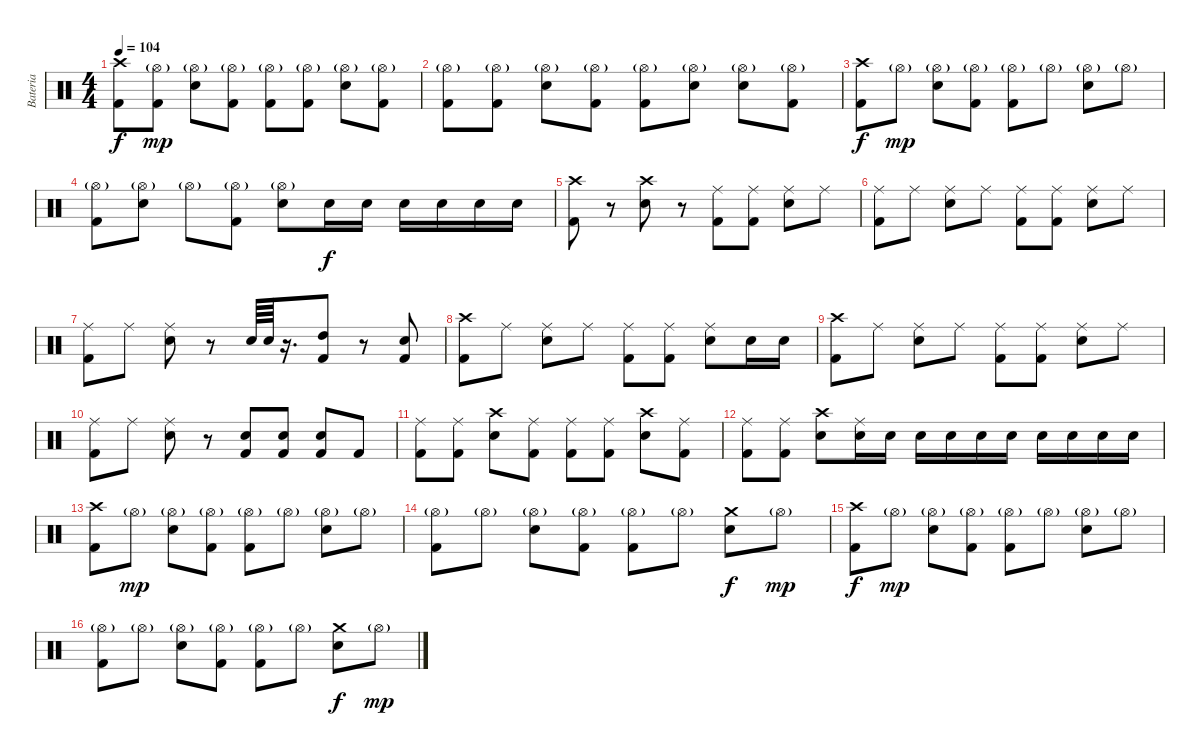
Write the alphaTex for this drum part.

\track ("Bateria" "Bateria") {instrument percussion}
\staff {score}
\articulation defaults
\ts (4 4)
\tempo 104
\clef neutral
\ks c
("Crash high (hit)" "Kick (hit) 2").8{dy f} ("Hi-Hat (open)"{g} "Kick (hit) 2").8{dy mp} ("Hi-Hat (open)"{g} "Snare (hit) 2").8 ("Hi-Hat (open)"{g} "Kick (hit) 2").8 ("Hi-Hat (open)"{g} "Kick (hit) 2").8 ("Hi-Hat (open)"{g} "Kick (hit) 2").8 ("Hi-Hat (open)"{g} "Snare (hit) 2").8 ("Hi-Hat (open)"{g} "Kick (hit) 2").8 |
("Hi-Hat (open)"{g} "Kick (hit) 2").8 ("Hi-Hat (open)"{g} "Kick (hit) 2").8 ("Hi-Hat (open)"{g} "Snare (hit) 2").8 ("Hi-Hat (open)"{g} "Kick (hit) 2").8 ("Hi-Hat (open)"{g} "Kick (hit) 2").8 ("Hi-Hat (open)"{g} "Snare (hit) 2").8 ("Hi-Hat (open)"{g} "Snare (hit) 2").8 ("Hi-Hat (open)"{g} "Kick (hit) 2").8 |
("Crash high (hit)" "Kick (hit) 2").8{dy f} "Hi-Hat (open)"{g}.8{dy mp} ("Hi-Hat (open)"{g} "Snare (hit) 2").8 ("Hi-Hat (open)"{g} "Kick (hit) 2").8 ("Hi-Hat (open)"{g} "Kick (hit) 2").8 "Hi-Hat (open)"{g}.8 ("Hi-Hat (open)"{g} "Snare (hit) 2").8 "Hi-Hat (open)"{g}.8 |
("Hi-Hat (open)"{g} "Kick (hit) 2").8 ("Hi-Hat (open)"{g} "Snare (hit) 2").8 "Hi-Hat (open)"{g}.8 ("Hi-Hat (open)"{g} "Kick (hit) 2").8 ("Hi-Hat (open)"{g} "Snare (hit) 2").8 "Snare (hit) 2".16{dy f} "Snare (hit) 2".16 "Snare (hit) 2".16 "Snare (hit) 2".16 "Snare (hit) 2".16 "Snare (hit) 2".16 |
("Crash high (hit)" "Kick (hit) 2").8 r.8 ("Crash high (hit)" "Snare (hit) 2").8 r.8 ("Ride (middle)" "Kick (hit) 2").8 ("Ride (middle)" "Kick (hit) 2").8 ("Ride (middle)" "Snare (hit) 2").8 "Ride (middle)".8 |
("Ride (middle)" "Kick (hit) 2").8 "Ride (middle)".8 ("Ride (middle)" "Snare (hit) 2").8 "Ride (middle)".8 ("Ride (middle)" "Kick (hit) 2").8 ("Ride (middle)" "Kick (hit) 2").8 ("Ride (middle)" "Snare (hit) 2").8 "Ride (middle)".8 |
("Ride (middle)" "Kick (hit) 2").8 "Ride (middle)".8 ("Ride (middle)" "Snare (hit) 2").8 r.8 "Snare (hit) 2".64 "Snare (hit) 2".64 r.16{d} ("Kick (hit) 2" "High Tom (hit)").8 r.8 ("Snare (hit) 2" "Kick (hit) 2").8 |
("Crash high (hit)" "Kick (hit) 2").8 "Ride (middle)".8 ("Ride (middle)" "Snare (hit) 2").8 "Ride (middle)".8 ("Ride (middle)" "Kick (hit) 2").8 ("Ride (middle)" "Kick (hit) 2").8 ("Ride (middle)" "Snare (hit) 2").8 "Snare (hit) 2".16 "Snare (hit) 2".16 |
("Crash high (hit)" "Kick (hit) 2").8 "Ride (middle)".8 ("Ride (middle)" "Snare (hit) 2").8 "Ride (middle)".8 ("Ride (middle)" "Kick (hit) 2").8 ("Ride (middle)" "Kick (hit) 2").8 ("Ride (middle)" "Snare (hit) 2").8 "Ride (middle)".8 |
("Ride (middle)" "Kick (hit) 2").8 "Ride (middle)".8 ("Ride (middle)" "Snare (hit) 2").8 r.8 ("Kick (hit) 2" "Snare (hit) 2").8 ("Kick (hit) 2" "Snare (hit) 2").8 ("Kick (hit) 2" "Snare (hit) 2").8 "Kick (hit) 2".8 |
("Ride (middle)" "Kick (hit) 2").8 ("Ride (middle)" "Kick (hit) 2").8 ("Crash high (hit)" "Snare (hit) 2").8 ("Ride (middle)" "Kick (hit) 2").8 ("Ride (middle)" "Kick (hit) 2").8 ("Ride (middle)" "Kick (hit) 2").8 ("Crash high (hit)" "Snare (hit) 2").8 ("Ride (middle)" "Kick (hit) 2").8 |
("Ride (middle)" "Kick (hit) 2").8 ("Ride (middle)" "Kick (hit) 2").8 ("Crash high (hit)" "Snare (hit) 2").8 ("Ride (middle)" "Snare (hit) 2").16 "Snare (hit) 2".16 "Snare (hit) 2".16 "Snare (hit) 2".16 "Snare (hit) 2".16 "Snare (hit) 2".16 "Snare (hit) 2".16 "Snare (hit) 2".16 "Snare (hit) 2".16 "Snare (hit) 2".16 |
("Crash high (hit)" "Kick (hit) 2").8 "Hi-Hat (open)"{g}.8{dy mp} ("Hi-Hat (open)"{g} "Snare (hit) 2").8 ("Hi-Hat (open)"{g} "Kick (hit) 2").8 ("Hi-Hat (open)"{g} "Kick (hit) 2").8 "Hi-Hat (open)"{g}.8 ("Hi-Hat (open)"{g} "Snare (hit) 2").8 "Hi-Hat (open)"{g}.8 |
("Hi-Hat (open)"{g} "Kick (hit) 2").8 "Hi-Hat (open)"{g}.8 ("Hi-Hat (open)"{g} "Snare (hit) 2").8 ("Hi-Hat (open)"{g} "Kick (hit) 2").8 ("Hi-Hat (open)"{g} "Kick (hit) 2").8 "Hi-Hat (open)"{g}.8 ("Crash medium (hit)" "Snare (hit) 2").8{dy f} "Hi-Hat (open)"{g}.8{dy mp} |
("Crash high (hit)" "Kick (hit) 2").8{dy f} "Hi-Hat (open)"{g}.8{dy mp} ("Hi-Hat (open)"{g} "Snare (hit) 2").8 ("Hi-Hat (open)"{g} "Kick (hit) 2").8 ("Hi-Hat (open)"{g} "Kick (hit) 2").8 "Hi-Hat (open)"{g}.8 ("Hi-Hat (open)"{g} "Snare (hit) 2").8 "Hi-Hat (open)"{g}.8 |
("Hi-Hat (open)"{g} "Kick (hit) 2").8 "Hi-Hat (open)"{g}.8 ("Hi-Hat (open)"{g} "Snare (hit) 2").8 ("Hi-Hat (open)"{g} "Kick (hit) 2").8 ("Hi-Hat (open)"{g} "Kick (hit) 2").8 "Hi-Hat (open)"{g}.8 ("Crash medium (hit)" "Snare (hit) 2").8{dy f} "Hi-Hat (open)"{g}.8{dy mp}
